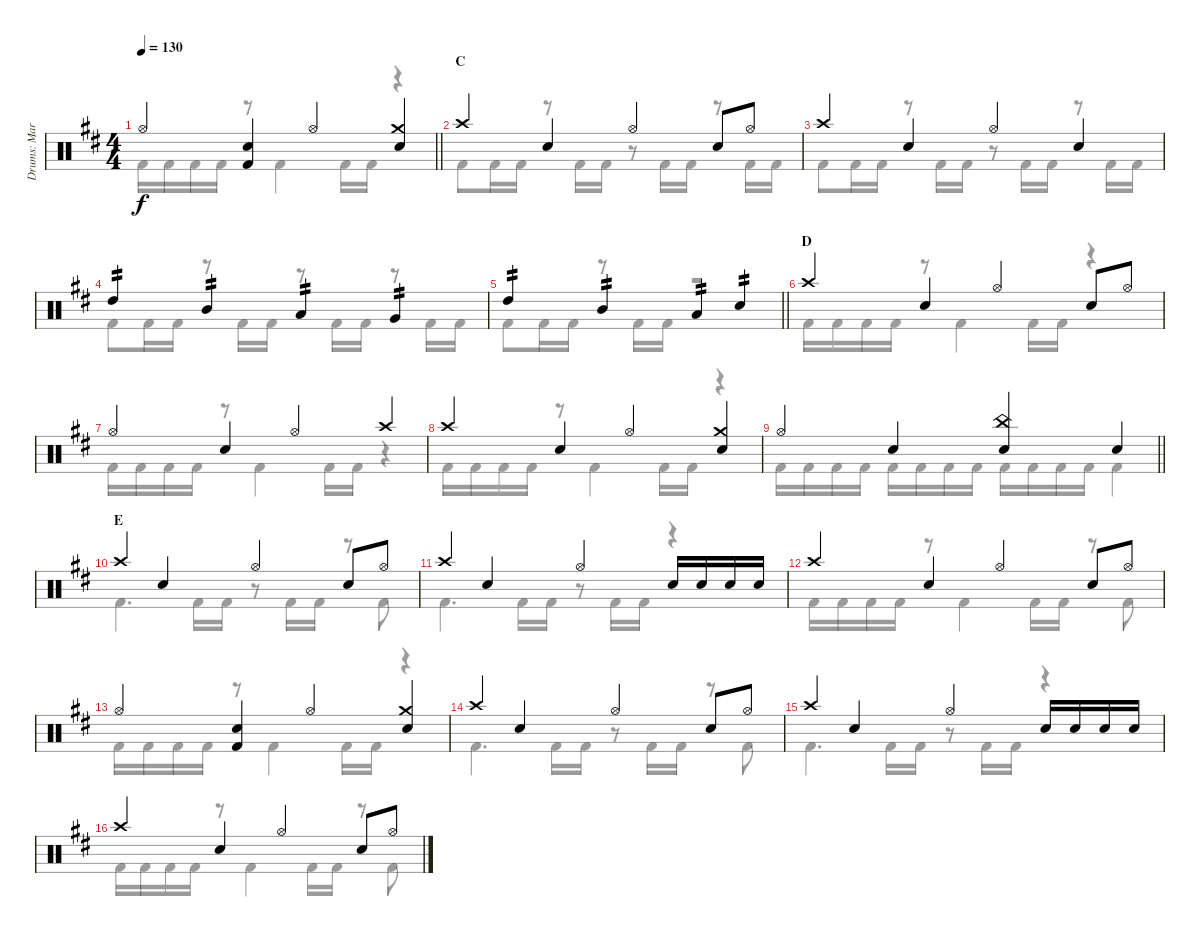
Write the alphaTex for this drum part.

\track ("Drums: Mark" "Drums: Mar") {instrument percussion}
\staff {score}
\articulation defaults
\voice
\ts (4 4)
\tempo 130
\clef neutral
\barLineRight lightlight
\ks d "Hi-Hat (open)".4{dy f}
("Snare (hit) 2" "Kick (hit) 2").4 "Hi-Hat (open)".4 ("Crash medium (hit)" "Snare (hit) 2").4 |
\section ("" "C")
"Crash high (hit)".4 "Snare (hit) 2".4 "Hi-Hat (open)".4 "Snare (hit) 2".8 "Hi-Hat (open)".8 |
"Crash high (hit)".4 "Snare (hit) 2".4 "Hi-Hat (open)".4 "Snare (hit) 2".4 |
"High Tom (hit)".4{tp 2} "Mid Tom (hit)".4{tp 2} "Low Tom (hit)".4{tp 2} "Very Low Tom (hit)".4{tp 2} |
\barLineRight lightlight "High Tom (hit)".4{tp 2} "Mid Tom (hit)".4{tp 2} "Low Tom (hit)".4{tp 2} "Snare (hit) 2".4{tp 2}
|
\section ("" "D")
"Crash high (hit)".4 "Snare (hit) 2".4 "Hi-Hat (open)".4 "Snare (hit) 2".8 "Hi-Hat (open)".8 |
"Hi-Hat (open)".4 "Snare (hit) 2".4 "Hi-Hat (open)".4 "Crash high (hit)".4 |
"Crash high (hit)".4 "Snare (hit) 2".4 "Hi-Hat (open)".4 ("Crash medium (hit)" "Snare (hit) 2").4 |
\barLineRight lightlight "Hi-Hat (open)".4 "Snare (hit) 2".4
("China (hit)" "Snare (hit) 2").4 "Snare (hit) 2".4 |
\section ("" "E")
"Crash high (hit)".4 "Snare (hit) 2".4 "Hi-Hat (open)".4 "Snare (hit) 2".8 "Hi-Hat (open)".8 |
"Crash high (hit)".4 "Snare (hit) 2".4 "Hi-Hat (open)".4 "Snare (hit) 2".16 "Snare (hit) 2".16 "Snare (hit) 2".16 "Snare (hit) 2".16 |
"Crash high (hit)".4 "Snare (hit) 2".4 "Hi-Hat (open)".4 "Snare (hit) 2".8 "Hi-Hat (open)".8 |
"Hi-Hat (open)".4 ("Snare (hit) 2" "Kick (hit) 2").4 "Hi-Hat (open)".4 ("Crash medium (hit)" "Snare (hit) 2").4 |
"Crash high (hit)".4 "Snare (hit) 2".4 "Hi-Hat (open)".4 "Snare (hit) 2".8 "Hi-Hat (open)".8 |
"Crash high (hit)".4 "Snare (hit) 2".4 "Hi-Hat (open)".4 "Snare (hit) 2".16 "Snare (hit) 2".16 "Snare (hit) 2".16 "Snare (hit) 2".16 |
"Crash high (hit)".4 "Snare (hit) 2".4 "Hi-Hat (open)".4 "Snare (hit) 2".8 "Hi-Hat (open)".8
\voice
\clef neutral
\ottava regular
\simile none
\barLineRight lightlight
\ks d "Kick (hit) 2".16{dy f} "Kick (hit) 2".16 "Kick (hit) 2".16 "Kick (hit) 2".16
r.8 "Kick (hit) 2".4 "Kick (hit) 2".16 "Kick (hit) 2".16 r.4 |
"Kick (hit) 2".8 "Kick (hit) 2".16 "Kick (hit) 2".16 r.8 "Kick (hit) 2".16 "Kick (hit) 2".16 r.8 "Kick (hit) 2".16 "Kick (hit) 2".16 r.8 "Kick (hit) 2".16 "Kick (hit) 2".16 |
"Kick (hit) 2".8 "Kick (hit) 2".16 "Kick (hit) 2".16 r.8 "Kick (hit) 2".16 "Kick (hit) 2".16 r.8 "Kick (hit) 2".16 "Kick (hit) 2".16 r.8 "Kick (hit) 2".16 "Kick (hit) 2".16 |
"Kick (hit) 2".8 "Kick (hit) 2".16 "Kick (hit) 2".16 r.8 "Kick (hit) 2".16 "Kick (hit) 2".16 r.8 "Kick (hit) 2".16 "Kick (hit) 2".16 r.8 "Kick (hit) 2".16 "Kick (hit) 2".16 |
\barLineRight lightlight "Kick (hit) 2".8 "Kick (hit) 2".16 "Kick (hit) 2".16
r.8 "Kick (hit) 2".16 "Kick (hit) 2".16 r.2 |
"Kick (hit) 2".16 "Kick (hit) 2".16 "Kick (hit) 2".16 "Kick (hit) 2".16 r.8 "Kick (hit) 2".4 "Kick (hit) 2".16 "Kick (hit) 2".16 r.4 |
"Kick (hit) 2".16 "Kick (hit) 2".16 "Kick (hit) 2".16 "Kick (hit) 2".16 r.8 "Kick (hit) 2".4 "Kick (hit) 2".16 "Kick (hit) 2".16 r.4 |
"Kick (hit) 2".16 "Kick (hit) 2".16 "Kick (hit) 2".16 "Kick (hit) 2".16 r.8 "Kick (hit) 2".4 "Kick (hit) 2".16 "Kick (hit) 2".16 r.4 |
\barLineRight lightlight "Kick (hit) 2".16 "Kick (hit) 2".16 "Kick (hit) 2".16 "Kick (hit) 2".16 "Kick (hit) 2".16 "Kick (hit) 2".16 "Kick (hit) 2".16 "Kick (hit) 2".16 "Kick (hit) 2".16 "Kick (hit) 2".16 "Kick (hit) 2".16 "Kick (hit) 2".16 "Kick (hit) 2".4
|
"Kick (hit) 2".4{d} "Kick (hit) 2".16 "Kick (hit) 2".16 r.8 "Kick (hit) 2".16 "Kick (hit) 2".16 r.8 "Kick (hit) 2".8 |
"Kick (hit) 2".4{d} "Kick (hit) 2".16 "Kick (hit) 2".16 r.8 "Kick (hit) 2".16 "Kick (hit) 2".16 r.4 |
"Kick (hit) 2".16 "Kick (hit) 2".16 "Kick (hit) 2".16 "Kick (hit) 2".16 r.8 "Kick (hit) 2".4 "Kick (hit) 2".16 "Kick (hit) 2".16 r.8 "Kick (hit) 2".8 |
"Kick (hit) 2".16 "Kick (hit) 2".16 "Kick (hit) 2".16 "Kick (hit) 2".16 r.8 "Kick (hit) 2".4 "Kick (hit) 2".16 "Kick (hit) 2".16 r.4 |
"Kick (hit) 2".4{d} "Kick (hit) 2".16 "Kick (hit) 2".16 r.8 "Kick (hit) 2".16 "Kick (hit) 2".16 r.8 "Kick (hit) 2".8 |
"Kick (hit) 2".4{d} "Kick (hit) 2".16 "Kick (hit) 2".16 r.8 "Kick (hit) 2".16 "Kick (hit) 2".16 r.4 |
"Kick (hit) 2".16 "Kick (hit) 2".16 "Kick (hit) 2".16 "Kick (hit) 2".16 r.8 "Kick (hit) 2".4 "Kick (hit) 2".16 "Kick (hit) 2".16 r.8 "Kick (hit) 2".8
